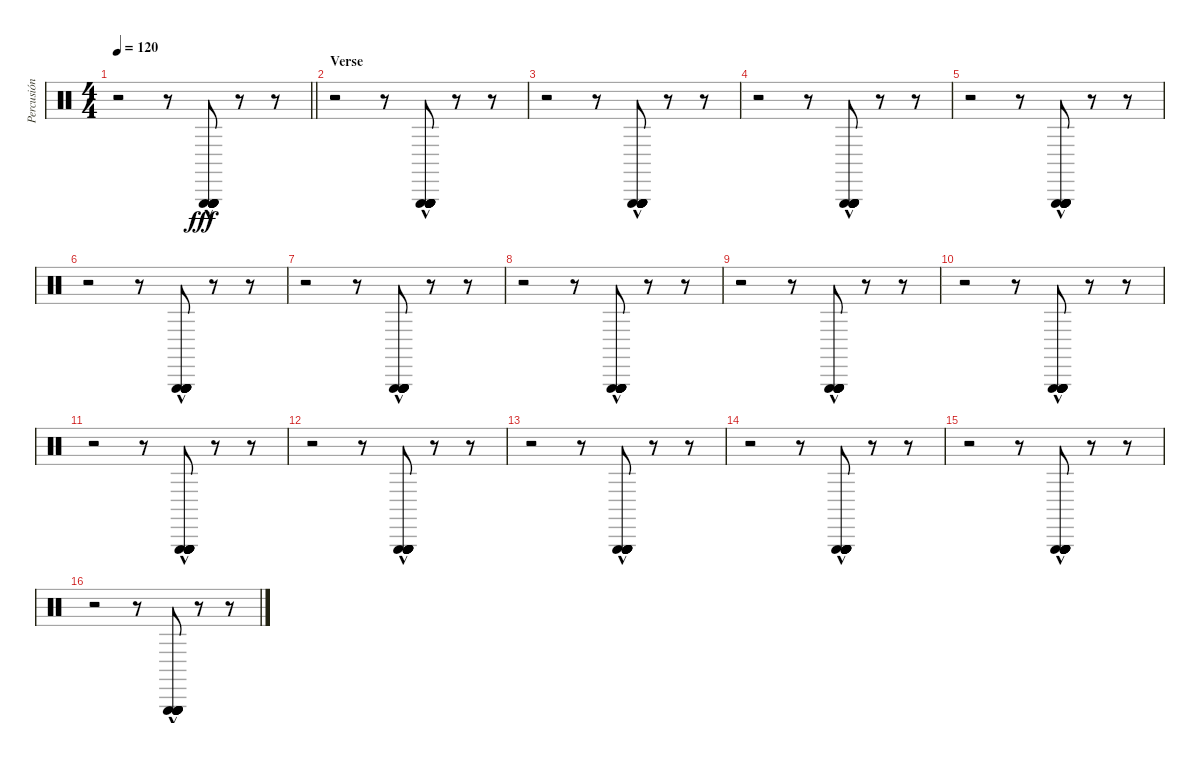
\track ("Percusión" "Percusión") {instrument percussion}
\staff {score}
\articulation defaults
\ts (4 4)
\tempo 120
\clef neutral
\barLineRight lightlight
\ks c
r.2{dy fff} r.8 ("Triangle (hit)" "Triangle (hit)" "Triangle (hit)" "Triangle (hit)" "Triangle (hit)" "Triangle (hit)"{hac}).8 r.8 r.8 |
\section ("" "Verse")
r.2 r.8 ("Triangle (hit)" "Triangle (hit)" "Triangle (hit)" "Triangle (hit)" "Triangle (hit)" "Triangle (hit)"{hac}).8 r.8 r.8 |
r.2 r.8 ("Triangle (hit)" "Triangle (hit)" "Triangle (hit)" "Triangle (hit)" "Triangle (hit)" "Triangle (hit)"{hac}).8 r.8 r.8 |
r.2 r.8 ("Triangle (hit)" "Triangle (hit)" "Triangle (hit)" "Triangle (hit)" "Triangle (hit)" "Triangle (hit)"{hac}).8 r.8 r.8 |
r.2 r.8 ("Triangle (hit)" "Triangle (hit)" "Triangle (hit)" "Triangle (hit)" "Triangle (hit)" "Triangle (hit)"{hac}).8 r.8 r.8 |
r.2 r.8 ("Triangle (hit)" "Triangle (hit)" "Triangle (hit)" "Triangle (hit)" "Triangle (hit)" "Triangle (hit)"{hac}).8 r.8 r.8 |
r.2 r.8 ("Triangle (hit)" "Triangle (hit)" "Triangle (hit)" "Triangle (hit)" "Triangle (hit)" "Triangle (hit)"{hac}).8 r.8 r.8 |
r.2 r.8 ("Triangle (hit)" "Triangle (hit)" "Triangle (hit)" "Triangle (hit)" "Triangle (hit)" "Triangle (hit)"{hac}).8 r.8 r.8 |
r.2 r.8 ("Triangle (hit)" "Triangle (hit)" "Triangle (hit)" "Triangle (hit)" "Triangle (hit)" "Triangle (hit)"{hac}).8 r.8 r.8 |
r.2 r.8 ("Triangle (hit)" "Triangle (hit)" "Triangle (hit)" "Triangle (hit)" "Triangle (hit)" "Triangle (hit)"{hac}).8 r.8 r.8 |
r.2 r.8 ("Triangle (hit)" "Triangle (hit)" "Triangle (hit)" "Triangle (hit)" "Triangle (hit)" "Triangle (hit)"{hac}).8 r.8 r.8 |
r.2 r.8 ("Triangle (hit)" "Triangle (hit)" "Triangle (hit)" "Triangle (hit)" "Triangle (hit)" "Triangle (hit)"{hac}).8 r.8 r.8 |
r.2 r.8 ("Triangle (hit)" "Triangle (hit)" "Triangle (hit)" "Triangle (hit)" "Triangle (hit)" "Triangle (hit)"{hac}).8 r.8 r.8 |
r.2 r.8 ("Triangle (hit)" "Triangle (hit)" "Triangle (hit)" "Triangle (hit)" "Triangle (hit)" "Triangle (hit)"{hac}).8 r.8 r.8 |
r.2 r.8 ("Triangle (hit)" "Triangle (hit)" "Triangle (hit)" "Triangle (hit)" "Triangle (hit)" "Triangle (hit)"{hac}).8 r.8 r.8 |
r.2 r.8 ("Triangle (hit)" "Triangle (hit)" "Triangle (hit)" "Triangle (hit)" "Triangle (hit)" "Triangle (hit)"{hac}).8 r.8 r.8
